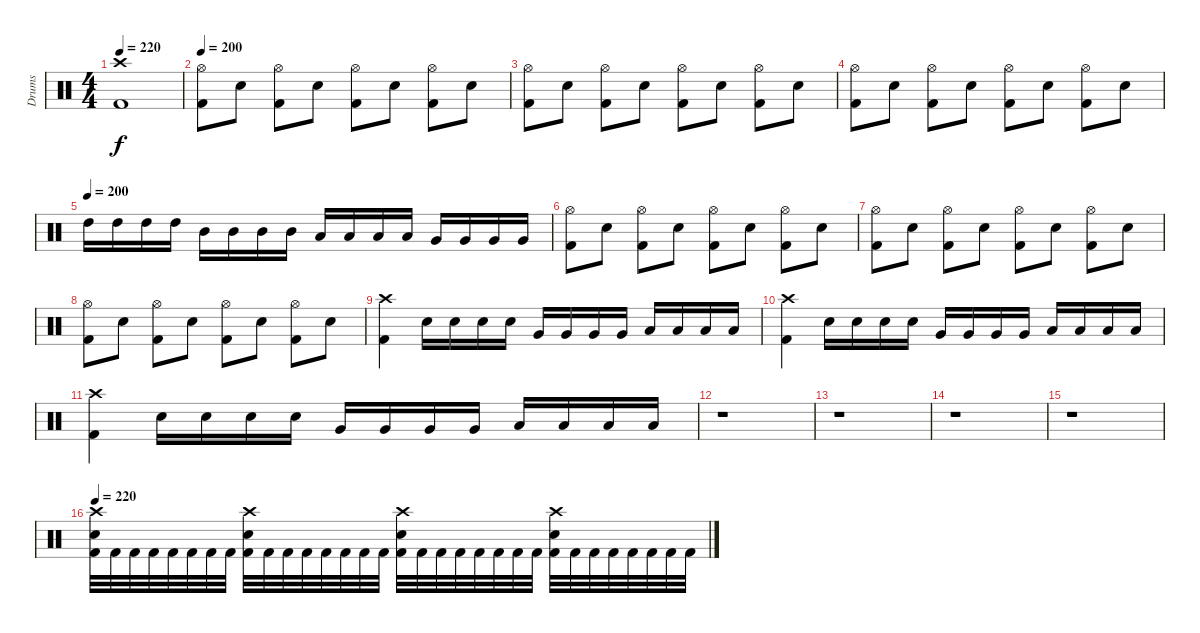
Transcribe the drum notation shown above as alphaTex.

\track ("Drums" "Drums") {instrument percussion}
\staff {score}
\articulation defaults
\ts (4 4)
\tempo 220
\clef neutral
\ks c
("Crash high (hit)" "Kick (hit) 2").1{dy f} |
\tempo 200
("Hi-Hat (open)" "Kick (hit) 2").8 "Snare (hit) 2".8 ("Hi-Hat (open)" "Kick (hit) 2").8 "Snare (hit) 2".8 ("Hi-Hat (open)" "Kick (hit) 2").8 "Snare (hit) 2".8 ("Hi-Hat (open)" "Kick (hit) 2").8 "Snare (hit) 2".8 |
("Hi-Hat (open)" "Kick (hit) 2").8 "Snare (hit) 2".8 ("Hi-Hat (open)" "Kick (hit) 2").8 "Snare (hit) 2".8 ("Hi-Hat (open)" "Kick (hit) 2").8 "Snare (hit) 2".8 ("Hi-Hat (open)" "Kick (hit) 2").8 "Snare (hit) 2".8 |
("Hi-Hat (open)" "Kick (hit) 2").8 "Snare (hit) 2".8 ("Hi-Hat (open)" "Kick (hit) 2").8 "Snare (hit) 2".8 ("Hi-Hat (open)" "Kick (hit) 2").8 "Snare (hit) 2".8 ("Hi-Hat (open)" "Kick (hit) 2").8 "Snare (hit) 2".8 |
\tempo (200)
"High Tom (hit)".16 "High Tom (hit)".16 "High Tom (hit)".16 "High Tom (hit)".16 "Mid Tom (hit)".16 "Mid Tom (hit)".16 "Mid Tom (hit)".16 "Mid Tom (hit)".16 "Low Tom (hit)".16 "Low Tom (hit)".16 "Low Tom (hit)".16 "Low Tom (hit)".16 "Very Low Tom (hit)".16 "Very Low Tom (hit)".16 "Very Low Tom (hit)".16 "Very Low Tom (hit)".16 |
("Hi-Hat (open)" "Kick (hit) 2").8 "Snare (hit) 2".8 ("Hi-Hat (open)" "Kick (hit) 2").8 "Snare (hit) 2".8 ("Hi-Hat (open)" "Kick (hit) 2").8 "Snare (hit) 2".8 ("Hi-Hat (open)" "Kick (hit) 2").8 "Snare (hit) 2".8 |
("Hi-Hat (open)" "Kick (hit) 2").8 "Snare (hit) 2".8 ("Hi-Hat (open)" "Kick (hit) 2").8 "Snare (hit) 2".8 ("Hi-Hat (open)" "Kick (hit) 2").8 "Snare (hit) 2".8 ("Hi-Hat (open)" "Kick (hit) 2").8 "Snare (hit) 2".8 |
("Hi-Hat (open)" "Kick (hit) 2").8 "Snare (hit) 2".8 ("Hi-Hat (open)" "Kick (hit) 2").8 "Snare (hit) 2".8 ("Hi-Hat (open)" "Kick (hit) 2").8 "Snare (hit) 2".8 ("Hi-Hat (open)" "Kick (hit) 2").8 "Snare (hit) 2".8 |
("Crash high (hit)" "Kick (hit) 2").4 "Snare (hit) 2".16 "Snare (hit) 2".16 "Snare (hit) 2".16 "Snare (hit) 2".16 "Very Low Tom (hit)".16 "Very Low Tom (hit)".16 "Very Low Tom (hit)".16 "Very Low Tom (hit)".16 "Low Floor Tom (hit)".16 "Low Floor Tom (hit)".16 "Low Floor Tom (hit)".16 "Low Floor Tom (hit)".16 |
("Crash high (hit)" "Kick (hit) 2").4 "Snare (hit) 2".16 "Snare (hit) 2".16 "Snare (hit) 2".16 "Snare (hit) 2".16 "Very Low Tom (hit)".16 "Very Low Tom (hit)".16 "Very Low Tom (hit)".16 "Very Low Tom (hit)".16 "Low Floor Tom (hit)".16 "Low Floor Tom (hit)".16 "Low Floor Tom (hit)".16 "Low Floor Tom (hit)".16 |
("Crash high (hit)" "Kick (hit) 2").4 "Snare (hit) 2".16 "Snare (hit) 2".16 "Snare (hit) 2".16 "Snare (hit) 2".16 "Very Low Tom (hit)".16 "Very Low Tom (hit)".16 "Very Low Tom (hit)".16 "Very Low Tom (hit)".16 "Low Floor Tom (hit)".16 "Low Floor Tom (hit)".16 "Low Floor Tom (hit)".16 "Low Floor Tom (hit)".16 |
r.1 |
r.1 |
r.1 |
r.1 |
\tempo 220
("Crash high (hit)" "Snare (hit) 2" "Kick (hit) 2").32 "Kick (hit) 2".32 "Kick (hit) 2".32 "Kick (hit) 2".32 "Kick (hit) 2".32 "Kick (hit) 2".32 "Kick (hit) 2".32 "Kick (hit) 2".32 ("Crash high (hit)" "Snare (hit) 2" "Kick (hit) 2").32 "Kick (hit) 2".32 "Kick (hit) 2".32 "Kick (hit) 2".32 "Kick (hit) 2".32 "Kick (hit) 2".32 "Kick (hit) 2".32 "Kick (hit) 2".32 ("Crash high (hit)" "Snare (hit) 2" "Kick (hit) 2").32 "Kick (hit) 2".32 "Kick (hit) 2".32 "Kick (hit) 2".32 "Kick (hit) 2".32 "Kick (hit) 2".32 "Kick (hit) 2".32 "Kick (hit) 2".32 ("Crash high (hit)" "Snare (hit) 2" "Kick (hit) 2").32 "Kick (hit) 2".32 "Kick (hit) 2".32 "Kick (hit) 2".32 "Kick (hit) 2".32 "Kick (hit) 2".32 "Kick (hit) 2".32 "Kick (hit) 2".32
